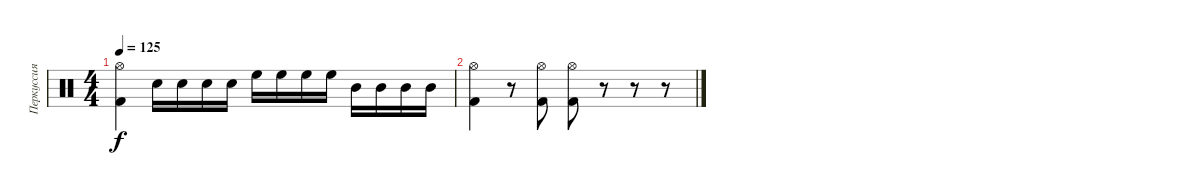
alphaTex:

\track ("Перкуссия" "Перкуссия") {instrument percussion}
\staff {score}
\articulation defaults
\ts (4 4)
\tempo 125
\clef neutral
\ks c
("Hi-Hat (open)" "Kick (hit) 2").4{dy f} "Snare (hit) 2".16 "Snare (hit) 2".16 "Snare (hit) 2".16 "Snare (hit) 2".16 "High Floor Tom (hit)".16 "High Floor Tom (hit)".16 "High Floor Tom (hit)".16 "High Floor Tom (hit)".16 "Mid Tom (hit)".16 "Mid Tom (hit)".16 "Mid Tom (hit)".16 "Mid Tom (hit)".16 |
("Hi-Hat (open)" "Kick (hit) 2").4 r.8 ("Hi-Hat (open)" "Kick (hit) 2").8 ("Hi-Hat (open)" "Kick (hit) 2").8 r.8 r.8 r.8
